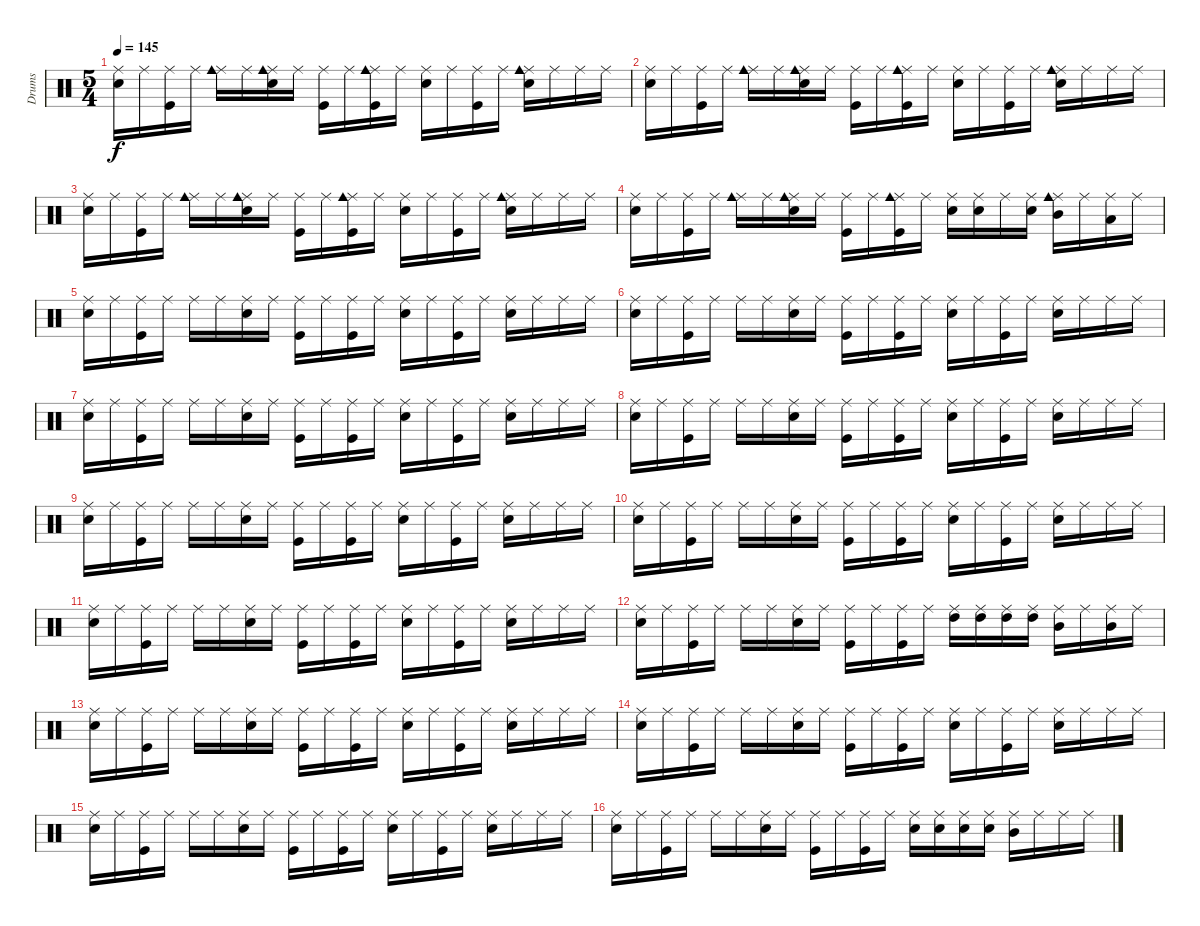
\track ("Drums" "Drums") {instrument percussion}
\staff {score}
\articulation defaults
\ts (5 4)
\tempo 145
\clef neutral
\ks c
("Ride (middle)" "Snare (hit) 2").16{dy f} "Ride (middle)".16 ("Ride (middle)" "Kick (hit)").16 "Ride (middle)".16 ("Ride (middle)" "Cowbell medium (hit)").16 "Ride (middle)".16 ("Ride (middle)" "Cowbell medium (hit)" "Snare (hit) 2").16 "Ride (middle)".16 ("Ride (middle)" "Kick (hit)").16 "Ride (middle)".16 ("Ride (middle)" "Cowbell medium (hit)" "Kick (hit)").16 "Ride (middle)".16 ("Ride (middle)" "Snare (hit) 2").16 "Ride (middle)".16 ("Ride (middle)" "Kick (hit)").16 "Ride (middle)".16 ("Ride (middle)" "Cowbell medium (hit)" "Snare (hit) 2").16 "Ride (middle)".16 "Ride (middle)".16 "Ride (middle)".16 |
("Ride (middle)" "Snare (hit) 2").16 "Ride (middle)".16 ("Ride (middle)" "Kick (hit)").16 "Ride (middle)".16 ("Ride (middle)" "Cowbell medium (hit)").16 "Ride (middle)".16 ("Ride (middle)" "Cowbell medium (hit)" "Snare (hit) 2").16 "Ride (middle)".16 ("Ride (middle)" "Kick (hit)").16 "Ride (middle)".16 ("Ride (middle)" "Cowbell medium (hit)" "Kick (hit)").16 "Ride (middle)".16 ("Ride (middle)" "Snare (hit) 2").16 "Ride (middle)".16 ("Ride (middle)" "Kick (hit)").16 "Ride (middle)".16 ("Ride (middle)" "Cowbell medium (hit)" "Snare (hit) 2").16 "Ride (middle)".16 "Ride (middle)".16 "Ride (middle)".16 |
("Ride (middle)" "Snare (hit) 2").16 "Ride (middle)".16 ("Ride (middle)" "Kick (hit)").16 "Ride (middle)".16 ("Ride (middle)" "Cowbell medium (hit)").16 "Ride (middle)".16 ("Ride (middle)" "Cowbell medium (hit)" "Snare (hit) 2").16 "Ride (middle)".16 ("Ride (middle)" "Kick (hit)").16 "Ride (middle)".16 ("Ride (middle)" "Cowbell medium (hit)" "Kick (hit)").16 "Ride (middle)".16 ("Ride (middle)" "Snare (hit) 2").16 "Ride (middle)".16 ("Ride (middle)" "Kick (hit)").16 "Ride (middle)".16 ("Ride (middle)" "Cowbell medium (hit)" "Snare (hit) 2").16 "Ride (middle)".16 "Ride (middle)".16 "Ride (middle)".16 |
("Ride (middle)" "Snare (hit) 2").16 "Ride (middle)".16 ("Ride (middle)" "Kick (hit)").16 "Ride (middle)".16 ("Ride (middle)" "Cowbell medium (hit)").16 "Ride (middle)".16 ("Ride (middle)" "Cowbell medium (hit)" "Snare (hit) 2").16 "Ride (middle)".16 ("Ride (middle)" "Kick (hit)").16 "Ride (middle)".16 ("Ride (middle)" "Cowbell medium (hit)" "Kick (hit)").16 "Ride (middle)".16 ("Ride (middle)" "Snare (hit) 2").16 ("Ride (middle)" "Snare (hit) 2").16 "Ride (middle)".16 ("Ride (middle)" "Snare (hit) 2").16 ("Ride (middle)" "Cowbell medium (hit)" "Mid Tom (hit)").16 "Ride (middle)".16 ("Ride (middle)" "Low Tom (hit)").16 "Ride (middle)".16 |
("Ride (middle)" "Snare (hit) 2").16 "Ride (middle)".16 ("Ride (middle)" "Kick (hit)").16 "Ride (middle)".16 "Ride (middle)".16 "Ride (middle)".16 ("Ride (middle)" "Snare (hit) 2").16 "Ride (middle)".16 ("Ride (middle)" "Kick (hit)").16 "Ride (middle)".16 ("Ride (middle)" "Kick (hit)").16 "Ride (middle)".16 ("Ride (middle)" "Snare (hit) 2").16 "Ride (middle)".16 ("Ride (middle)" "Kick (hit)").16 "Ride (middle)".16 ("Ride (middle)" "Snare (hit) 2").16 "Ride (middle)".16 "Ride (middle)".16 "Ride (middle)".16 |
("Ride (middle)" "Snare (hit) 2").16 "Ride (middle)".16 ("Ride (middle)" "Kick (hit)").16 "Ride (middle)".16 "Ride (middle)".16 "Ride (middle)".16 ("Ride (middle)" "Snare (hit) 2").16 "Ride (middle)".16 ("Ride (middle)" "Kick (hit)").16 "Ride (middle)".16 ("Ride (middle)" "Kick (hit)").16 "Ride (middle)".16 ("Ride (middle)" "Snare (hit) 2").16 "Ride (middle)".16 ("Ride (middle)" "Kick (hit)").16 "Ride (middle)".16 ("Ride (middle)" "Snare (hit) 2").16 "Ride (middle)".16 "Ride (middle)".16 "Ride (middle)".16 |
("Ride (middle)" "Snare (hit) 2").16 "Ride (middle)".16 ("Ride (middle)" "Kick (hit)").16 "Ride (middle)".16 "Ride (middle)".16 "Ride (middle)".16 ("Ride (middle)" "Snare (hit) 2").16 "Ride (middle)".16 ("Ride (middle)" "Kick (hit)").16 "Ride (middle)".16 ("Ride (middle)" "Kick (hit)").16 "Ride (middle)".16 ("Ride (middle)" "Snare (hit) 2").16 "Ride (middle)".16 ("Ride (middle)" "Kick (hit)").16 "Ride (middle)".16 ("Ride (middle)" "Snare (hit) 2").16 "Ride (middle)".16 "Ride (middle)".16 "Ride (middle)".16 |
("Ride (middle)" "Snare (hit) 2").16 "Ride (middle)".16 ("Ride (middle)" "Kick (hit)").16 "Ride (middle)".16 "Ride (middle)".16 "Ride (middle)".16 ("Ride (middle)" "Snare (hit) 2").16 "Ride (middle)".16 ("Ride (middle)" "Kick (hit)").16 "Ride (middle)".16 ("Ride (middle)" "Kick (hit)").16 "Ride (middle)".16 ("Ride (middle)" "Snare (hit) 2").16 "Ride (middle)".16 ("Ride (middle)" "Kick (hit)").16 "Ride (middle)".16 ("Ride (middle)" "Snare (hit) 2").16 "Ride (middle)".16 "Ride (middle)".16 "Ride (middle)".16 |
("Ride (middle)" "Snare (hit) 2").16 "Ride (middle)".16 ("Ride (middle)" "Kick (hit)").16 "Ride (middle)".16 "Ride (middle)".16 "Ride (middle)".16 ("Ride (middle)" "Snare (hit) 2").16 "Ride (middle)".16 ("Ride (middle)" "Kick (hit)").16 "Ride (middle)".16 ("Ride (middle)" "Kick (hit)").16 "Ride (middle)".16 ("Ride (middle)" "Snare (hit) 2").16 "Ride (middle)".16 ("Ride (middle)" "Kick (hit)").16 "Ride (middle)".16 ("Ride (middle)" "Snare (hit) 2").16 "Ride (middle)".16 "Ride (middle)".16 "Ride (middle)".16 |
("Ride (middle)" "Snare (hit) 2").16 "Ride (middle)".16 ("Ride (middle)" "Kick (hit)").16 "Ride (middle)".16 "Ride (middle)".16 "Ride (middle)".16 ("Ride (middle)" "Snare (hit) 2").16 "Ride (middle)".16 ("Ride (middle)" "Kick (hit)").16 "Ride (middle)".16 ("Ride (middle)" "Kick (hit)").16 "Ride (middle)".16 ("Ride (middle)" "Snare (hit) 2").16 "Ride (middle)".16 ("Ride (middle)" "Kick (hit)").16 "Ride (middle)".16 ("Ride (middle)" "Snare (hit) 2").16 "Ride (middle)".16 "Ride (middle)".16 "Ride (middle)".16 |
("Ride (middle)" "Snare (hit) 2").16 "Ride (middle)".16 ("Ride (middle)" "Kick (hit)").16 "Ride (middle)".16 "Ride (middle)".16 "Ride (middle)".16 ("Ride (middle)" "Snare (hit) 2").16 "Ride (middle)".16 ("Ride (middle)" "Kick (hit)").16 "Ride (middle)".16 ("Ride (middle)" "Kick (hit)").16 "Ride (middle)".16 ("Ride (middle)" "Snare (hit) 2").16 "Ride (middle)".16 ("Ride (middle)" "Kick (hit)").16 "Ride (middle)".16 ("Ride (middle)" "Snare (hit) 2").16 "Ride (middle)".16 "Ride (middle)".16 "Ride (middle)".16 |
("Ride (middle)" "Snare (hit) 2").16 "Ride (middle)".16 ("Ride (middle)" "Kick (hit)").16 "Ride (middle)".16 "Ride (middle)".16 "Ride (middle)".16 ("Ride (middle)" "Snare (hit) 2").16 "Ride (middle)".16 ("Ride (middle)" "Kick (hit)").16 "Ride (middle)".16 ("Ride (middle)" "Kick (hit)").16 "Ride (middle)".16 ("Ride (middle)" "High Tom (hit)").16 ("Ride (middle)" "High Tom (hit)").16 ("Ride (middle)" "High Tom (hit)").16 ("Ride (middle)" "High Tom (hit)").16 ("Ride (middle)" "Mid Tom (hit)").16 "Ride (middle)".16 ("Ride (middle)" "Mid Tom (hit)").16 "Ride (middle)".16 |
("Ride (middle)" "Snare (hit) 2").16 "Ride (middle)".16 ("Ride (middle)" "Kick (hit)").16 "Ride (middle)".16 "Ride (middle)".16 "Ride (middle)".16 ("Ride (middle)" "Snare (hit) 2").16 "Ride (middle)".16 ("Ride (middle)" "Kick (hit)").16 "Ride (middle)".16 ("Ride (middle)" "Kick (hit)").16 "Ride (middle)".16 ("Ride (middle)" "Snare (hit) 2").16 "Ride (middle)".16 ("Ride (middle)" "Kick (hit)").16 "Ride (middle)".16 ("Ride (middle)" "Snare (hit) 2").16 "Ride (middle)".16 "Ride (middle)".16 "Ride (middle)".16 |
("Ride (middle)" "Snare (hit) 2").16 "Ride (middle)".16 ("Ride (middle)" "Kick (hit)").16 "Ride (middle)".16 "Ride (middle)".16 "Ride (middle)".16 ("Ride (middle)" "Snare (hit) 2").16 "Ride (middle)".16 ("Ride (middle)" "Kick (hit)").16 "Ride (middle)".16 ("Ride (middle)" "Kick (hit)").16 "Ride (middle)".16 ("Ride (middle)" "Snare (hit) 2").16 "Ride (middle)".16 ("Ride (middle)" "Kick (hit)").16 "Ride (middle)".16 ("Ride (middle)" "Snare (hit) 2").16 "Ride (middle)".16 "Ride (middle)".16 "Ride (middle)".16 |
("Ride (middle)" "Snare (hit) 2").16 "Ride (middle)".16 ("Ride (middle)" "Kick (hit)").16 "Ride (middle)".16 "Ride (middle)".16 "Ride (middle)".16 ("Ride (middle)" "Snare (hit) 2").16 "Ride (middle)".16 ("Ride (middle)" "Kick (hit)").16 "Ride (middle)".16 ("Ride (middle)" "Kick (hit)").16 "Ride (middle)".16 ("Ride (middle)" "Snare (hit) 2").16 "Ride (middle)".16 ("Ride (middle)" "Kick (hit)").16 "Ride (middle)".16 ("Ride (middle)" "Snare (hit) 2").16 "Ride (middle)".16 "Ride (middle)".16 "Ride (middle)".16 |
("Ride (middle)" "Snare (hit) 2").16 "Ride (middle)".16 ("Ride (middle)" "Kick (hit)").16 "Ride (middle)".16 "Ride (middle)".16 "Ride (middle)".16 ("Ride (middle)" "Snare (hit) 2").16 "Ride (middle)".16 ("Ride (middle)" "Kick (hit)").16 "Ride (middle)".16 ("Ride (middle)" "Kick (hit)").16 "Ride (middle)".16 ("Ride (middle)" "Snare (hit) 2").16 ("Ride (middle)" "Snare (hit) 2").16 ("Ride (middle)" "Snare (hit) 2").16 ("Ride (middle)" "Snare (hit) 2").16 ("Ride (middle)" "Mid Tom (hit)").16 "Ride (middle)".16 "Ride (middle)".16 "Ride (middle)".16
